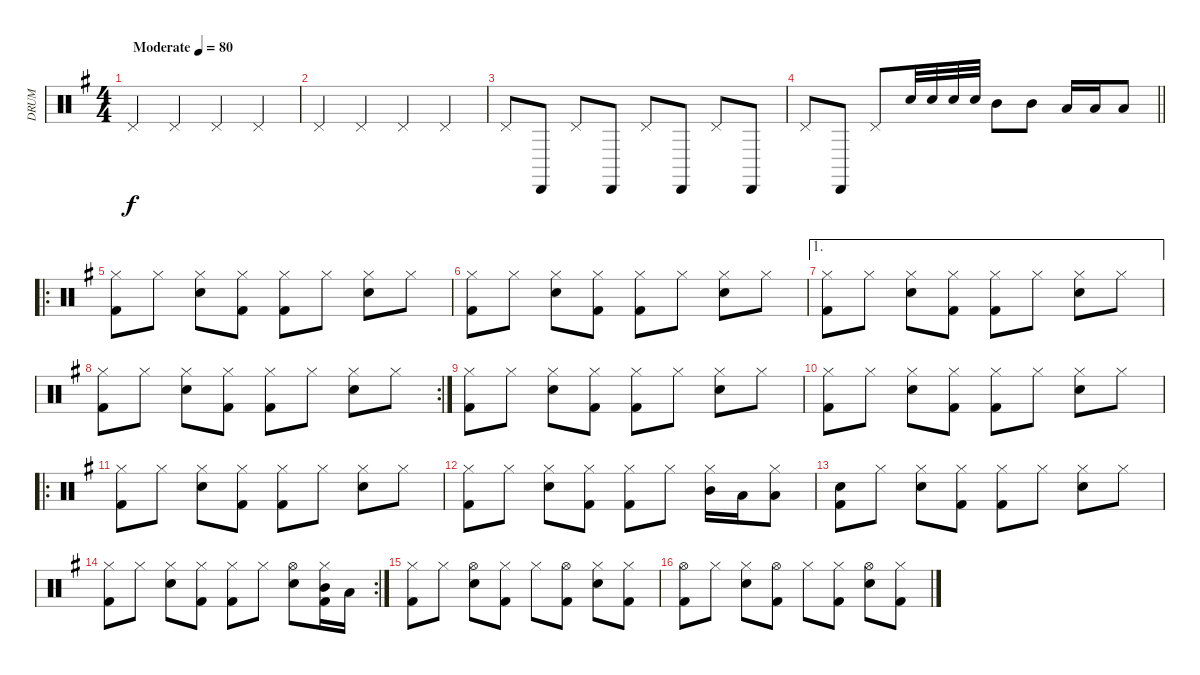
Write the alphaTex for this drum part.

\track ("DRUM" "DRUM") {instrument percussion}
\staff {score}
\articulation defaults
\ts (4 4)
\tempo (80 "Moderate")
\clef neutral
\ks g "Pedal Hi-Hat (hit)".4{dy f} "Pedal Hi-Hat (hit)".4 "Pedal Hi-Hat (hit)".4 "Pedal Hi-Hat (hit)".4
|
"Pedal Hi-Hat (hit)".4 "Pedal Hi-Hat (hit)".4 "Pedal Hi-Hat (hit)".4 "Pedal Hi-Hat (hit)".4 |
"Pedal Hi-Hat (hit)".8 "Cabasa (hit)".8 "Pedal Hi-Hat (hit)".8 "Cabasa (hit)".8 "Pedal Hi-Hat (hit)".8 "Cabasa (hit)".8 "Pedal Hi-Hat (hit)".8 "Cabasa (hit)".8 |
\barLineRight lightlight "Pedal Hi-Hat (hit)".8 "Cabasa (hit)".8 "Pedal Hi-Hat (hit)".8 "Snare (hit) 2".32 "Snare (hit) 2".32 "Snare (hit) 2".32 "Snare (hit) 2".32 "Mid Tom (hit)".8 "Mid Tom (hit)".8 "Low Tom (hit)".16 "Low Tom (hit)".16 "Low Tom (hit)".8
|
\ro
("Hi-Hat (closed)" "Kick (hit) 2").8 "Hi-Hat (closed)".8 ("Hi-Hat (closed)" "Snare (hit) 2").8 ("Hi-Hat (closed)" "Kick (hit) 2").8 ("Hi-Hat (closed)" "Kick (hit) 2").8 "Hi-Hat (closed)".8 ("Hi-Hat (closed)" "Snare (hit) 2").8 "Hi-Hat (closed)".8 |
("Hi-Hat (closed)" "Kick (hit) 2").8 "Hi-Hat (closed)".8 ("Hi-Hat (closed)" "Snare (hit) 2").8 ("Hi-Hat (closed)" "Kick (hit) 2").8 ("Hi-Hat (closed)" "Kick (hit) 2").8 "Hi-Hat (closed)".8 ("Hi-Hat (closed)" "Snare (hit) 2").8 "Hi-Hat (closed)".8 |
\ae 1
("Hi-Hat (closed)" "Kick (hit) 2").8 "Hi-Hat (closed)".8 ("Hi-Hat (closed)" "Snare (hit) 2").8 ("Hi-Hat (closed)" "Kick (hit) 2").8 ("Hi-Hat (closed)" "Kick (hit) 2").8 "Hi-Hat (closed)".8 ("Hi-Hat (closed)" "Snare (hit) 2").8 "Hi-Hat (closed)".8 |
\rc 2
("Hi-Hat (closed)" "Kick (hit) 2").8 "Hi-Hat (closed)".8 ("Hi-Hat (closed)" "Snare (hit) 2").8 ("Hi-Hat (closed)" "Kick (hit) 2").8 ("Hi-Hat (closed)" "Kick (hit) 2").8 "Hi-Hat (closed)".8 ("Hi-Hat (closed)" "Snare (hit) 2").8 "Hi-Hat (closed)".8 |
("Hi-Hat (closed)" "Kick (hit) 2").8 "Hi-Hat (closed)".8 ("Hi-Hat (closed)" "Snare (hit) 2").8 ("Hi-Hat (closed)" "Kick (hit) 2").8 ("Hi-Hat (closed)" "Kick (hit) 2").8 "Hi-Hat (closed)".8 ("Hi-Hat (closed)" "Snare (hit) 2").8 "Hi-Hat (closed)".8 |
("Hi-Hat (closed)" "Kick (hit) 2").8 "Hi-Hat (closed)".8 ("Hi-Hat (closed)" "Snare (hit) 2").8 ("Hi-Hat (closed)" "Kick (hit) 2").8 ("Hi-Hat (closed)" "Kick (hit) 2").8 "Hi-Hat (closed)".8 ("Hi-Hat (closed)" "Snare (hit) 2").8 "Hi-Hat (closed)".8 |
\ro
("Hi-Hat (closed)" "Kick (hit) 2").8 "Hi-Hat (closed)".8 ("Hi-Hat (closed)" "Snare (hit) 2").8 ("Hi-Hat (closed)" "Kick (hit) 2").8 ("Hi-Hat (closed)" "Kick (hit) 2").8 "Hi-Hat (closed)".8 ("Hi-Hat (closed)" "Snare (hit) 2").8 "Hi-Hat (closed)".8 |
("Hi-Hat (closed)" "Kick (hit) 2").8 "Hi-Hat (closed)".8 ("Hi-Hat (closed)" "Snare (hit) 2").8 ("Hi-Hat (closed)" "Kick (hit) 2").8 ("Hi-Hat (closed)" "Kick (hit) 2").8 "Hi-Hat (closed)".8 ("Hi-Hat (closed)" "Mid Tom (hit)").16 "Low Tom (hit)".16 ("Hi-Hat (closed)" "Low Floor Tom (hit)").8 |
("Snare (hit)" "Kick (hit) 2").8 "Hi-Hat (closed)".8 ("Hi-Hat (closed)" "Snare (hit) 2").8 ("Hi-Hat (closed)" "Kick (hit) 2").8 ("Hi-Hat (closed)" "Kick (hit) 2").8 "Hi-Hat (closed)".8 ("Hi-Hat (closed)" "Snare (hit) 2").8 "Hi-Hat (closed)".8 |
\rc 2
("Hi-Hat (closed)" "Kick (hit) 2").8 "Hi-Hat (closed)".8 ("Hi-Hat (closed)" "Snare (hit) 2").8 ("Hi-Hat (closed)" "Kick (hit) 2").8 ("Hi-Hat (closed)" "Kick (hit) 2").8 "Hi-Hat (closed)".8 ("Hi-Hat (open)" "Snare (hit) 2").8 ("Hi-Hat (closed)" "Mid Tom (hit)" "Kick (hit) 2").16 "Low Tom (hit)".16 |
("Hi-Hat (closed)" "Kick (hit) 2").8 "Hi-Hat (closed)".8 ("Hi-Hat (open)" "Snare (hit) 2").8 ("Hi-Hat (closed)" "Kick (hit) 2").8 "Hi-Hat (closed)".8 ("Hi-Hat (open)" "Kick (hit) 2").8 ("Hi-Hat (closed)" "Snare (hit) 2").8 ("Hi-Hat (closed)" "Kick (hit) 2").8 |
("Hi-Hat (open)" "Kick (hit) 2").8 "Hi-Hat (closed)".8 ("Hi-Hat (closed)" "Snare (hit) 2").8 ("Hi-Hat (open)" "Kick (hit) 2").8 "Hi-Hat (closed)".8 ("Hi-Hat (closed)" "Kick (hit) 2").8 ("Hi-Hat (open)" "Snare (hit) 2").8 ("Hi-Hat (closed)" "Kick (hit) 2").8
